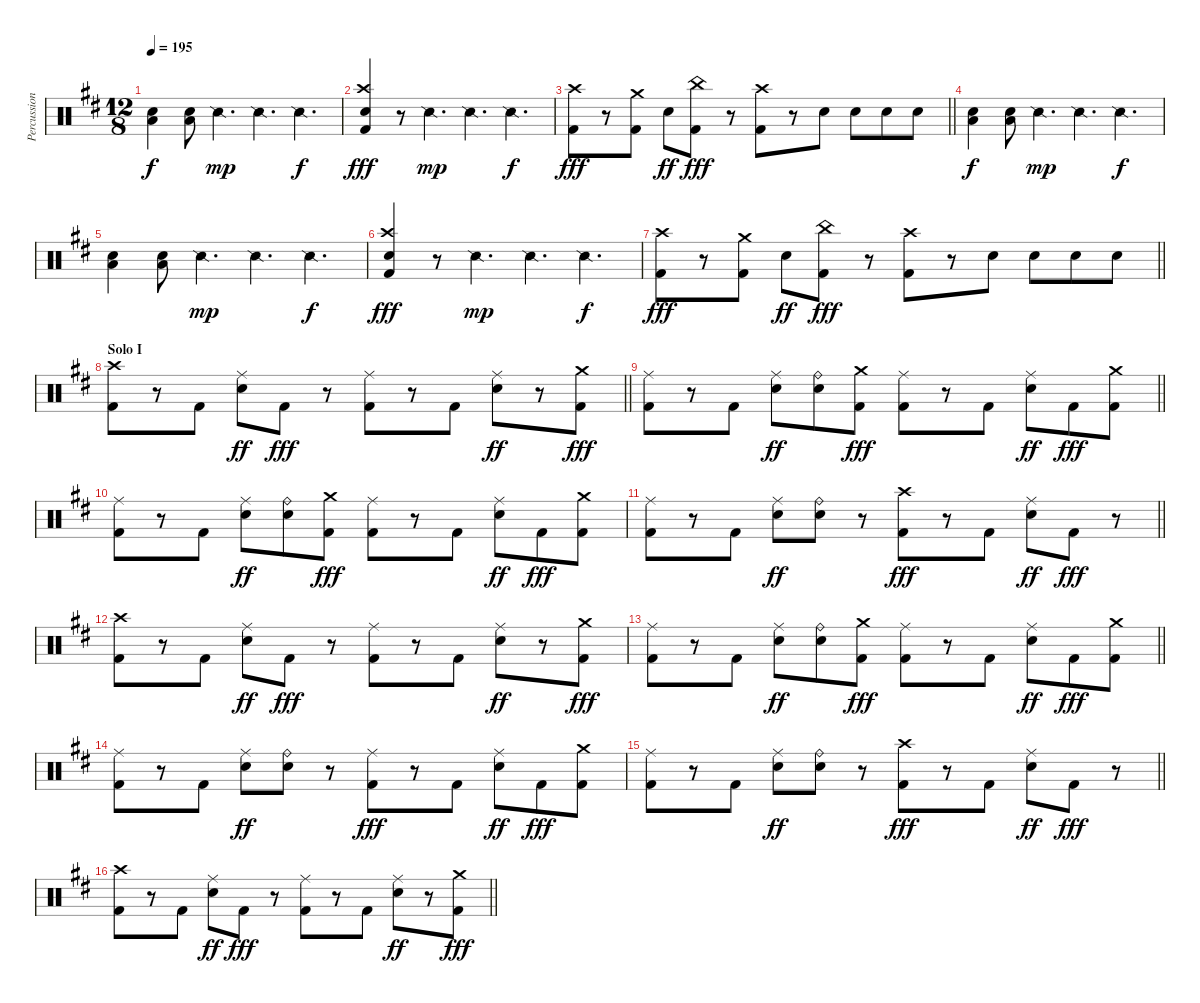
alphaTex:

\track ("Percussion" "Percussion") {instrument percussion}
\staff {score}
\articulation defaults
\ts (12 8)
\tempo 195
\clef neutral
\ks d
("Low Floor Tom (hit)" "Snare (hit) 2").4{dy f} ("Low Floor Tom (hit)" "Snare (hit) 2").8 "Snare (side stick) 2".4{d dy mp} "Snare (side stick) 2".4{d} "Snare (side stick) 2".4{d dy f} |
("Crash high (hit)" "Snare (hit) 2" "Kick (hit) 2").4{dy fff} r.8 "Snare (side stick) 2".4{d dy mp} "Snare (side stick) 2".4{d} "Snare (side stick) 2".4{d dy f} |
\barLineRight lightlight
("Crash high (hit)" "Kick (hit) 2").8{dy fff} r.8 ("Crash medium (hit)" "Kick (hit) 2").8 "Snare (hit) 2".8{dy ff} ("China (hit)" "Kick (hit) 2").8{dy fff} r.8 ("Crash high (hit)" "Kick (hit) 2").8 r.8 "Snare (hit) 2".8 "Snare (hit) 2".8 "Snare (hit) 2".8 "Snare (hit) 2".8 |
("Low Floor Tom (hit)" "Snare (hit) 2").4{dy f} ("Low Floor Tom (hit)" "Snare (hit) 2").8 "Snare (side stick) 2".4{d dy mp} "Snare (side stick) 2".4{d} "Snare (side stick) 2".4{d dy f} |
("Low Floor Tom (hit)" "Snare (hit) 2").4 ("Low Floor Tom (hit)" "Snare (hit) 2").8 "Snare (side stick) 2".4{d dy mp} "Snare (side stick) 2".4{d} "Snare (side stick) 2".4{d dy f} |
("Crash high (hit)" "Snare (hit) 2" "Kick (hit) 2").4{dy fff} r.8 "Snare (side stick) 2".4{d dy mp} "Snare (side stick) 2".4{d} "Snare (side stick) 2".4{d dy f} |
\barLineRight lightlight
("Crash high (hit)" "Kick (hit) 2").8{dy fff} r.8 ("Crash medium (hit)" "Kick (hit) 2").8 "Snare (hit) 2".8{dy ff} ("China (hit)" "Kick (hit) 2").8{dy fff} r.8 ("Crash high (hit)" "Kick (hit) 2").8 r.8 "Snare (hit) 2".8 "Snare (hit) 2".8 "Snare (hit) 2".8 "Snare (hit) 2".8 |
\section ("" "Solo I")
\barLineRight lightlight
("Crash high (hit)" "Kick (hit) 2").8 r.8 "Kick (hit) 2".8 ("Ride (middle)" "Snare (hit) 2").8{dy ff} "Kick (hit) 2".8{dy fff} r.8 ("Ride (middle)" "Kick (hit) 2").8 r.8 "Kick (hit) 2".8 ("Ride (middle)" "Snare (hit) 2").8{dy ff} r.8 ("Crash medium (hit)" "Kick (hit) 2").8{dy fff} |
\barLineRight lightlight
("Ride (middle)" "Kick (hit) 2").8 r.8 "Kick (hit) 2".8 ("Ride (middle)" "Snare (hit) 2").8{dy ff} ("Ride (bell)" "Snare (hit) 2").8 ("Crash medium (hit)" "Kick (hit) 2").8{dy fff} ("Ride (middle)" "Kick (hit) 2").8 r.8 "Kick (hit) 2".8 ("Ride (middle)" "Snare (hit) 2").8{dy ff} "Kick (hit) 2".8{dy fff} ("Crash medium (hit)" "Kick (hit) 2").8 |
("Ride (middle)" "Kick (hit) 2").8 r.8 "Kick (hit) 2".8 ("Ride (middle)" "Snare (hit) 2").8{dy ff} ("Ride (bell)" "Snare (hit) 2").8 ("Crash medium (hit)" "Kick (hit) 2").8{dy fff} ("Ride (middle)" "Kick (hit) 2").8 r.8 "Kick (hit) 2".8 ("Ride (middle)" "Snare (hit) 2").8{dy ff} "Kick (hit) 2".8{dy fff} ("Crash medium (hit)" "Kick (hit) 2").8 |
\barLineRight lightlight
("Ride (middle)" "Kick (hit) 2").8 r.8 "Kick (hit) 2".8 ("Ride (middle)" "Snare (hit) 2").8{dy ff} ("Ride (bell)" "Snare (hit) 2").8 r.8 ("Crash high (hit)" "Kick (hit) 2").8{dy fff} r.8 "Kick (hit) 2".8 ("Ride (middle)" "Snare (hit) 2").8{dy ff} "Kick (hit) 2".8{dy fff} r.8 |
("Crash high (hit)" "Kick (hit) 2").8 r.8 "Kick (hit) 2".8 ("Ride (middle)" "Snare (hit) 2").8{dy ff} "Kick (hit) 2".8{dy fff} r.8 ("Ride (middle)" "Kick (hit) 2").8 r.8 "Kick (hit) 2".8 ("Ride (middle)" "Snare (hit) 2").8{dy ff} r.8 ("Crash medium (hit)" "Kick (hit) 2").8{dy fff} |
\barLineRight lightlight
("Ride (middle)" "Kick (hit) 2").8 r.8 "Kick (hit) 2".8 ("Ride (middle)" "Snare (hit) 2").8{dy ff} ("Ride (bell)" "Snare (hit) 2").8 ("Crash medium (hit)" "Kick (hit) 2").8{dy fff} ("Ride (middle)" "Kick (hit) 2").8 r.8 "Kick (hit) 2".8 ("Ride (middle)" "Snare (hit) 2").8{dy ff} "Kick (hit) 2".8{dy fff} ("Crash medium (hit)" "Kick (hit) 2").8 |
("Ride (middle)" "Kick (hit) 2").8 r.8 "Kick (hit) 2".8 ("Ride (middle)" "Snare (hit) 2").8{dy ff} ("Ride (bell)" "Snare (hit) 2").8 r.8 ("Ride (middle)" "Kick (hit) 2").8{dy fff} r.8 "Kick (hit) 2".8 ("Ride (middle)" "Snare (hit) 2").8{dy ff} "Kick (hit) 2".8{dy fff} ("Crash medium (hit)" "Kick (hit) 2").8 |
\barLineRight lightlight
("Ride (middle)" "Kick (hit) 2").8 r.8 "Kick (hit) 2".8 ("Ride (middle)" "Snare (hit) 2").8{dy ff} ("Ride (bell)" "Snare (hit) 2").8 r.8 ("Crash high (hit)" "Kick (hit) 2").8{dy fff} r.8 "Kick (hit) 2".8 ("Ride (middle)" "Snare (hit) 2").8{dy ff} "Kick (hit) 2".8{dy fff} r.8 |
\barLineRight lightlight
("Crash high (hit)" "Kick (hit) 2").8 r.8 "Kick (hit) 2".8 ("Ride (middle)" "Snare (hit) 2").8{dy ff} "Kick (hit) 2".8{dy fff} r.8 ("Ride (middle)" "Kick (hit) 2").8 r.8 "Kick (hit) 2".8 ("Ride (middle)" "Snare (hit) 2").8{dy ff} r.8 ("Crash medium (hit)" "Kick (hit) 2").8{dy fff}
